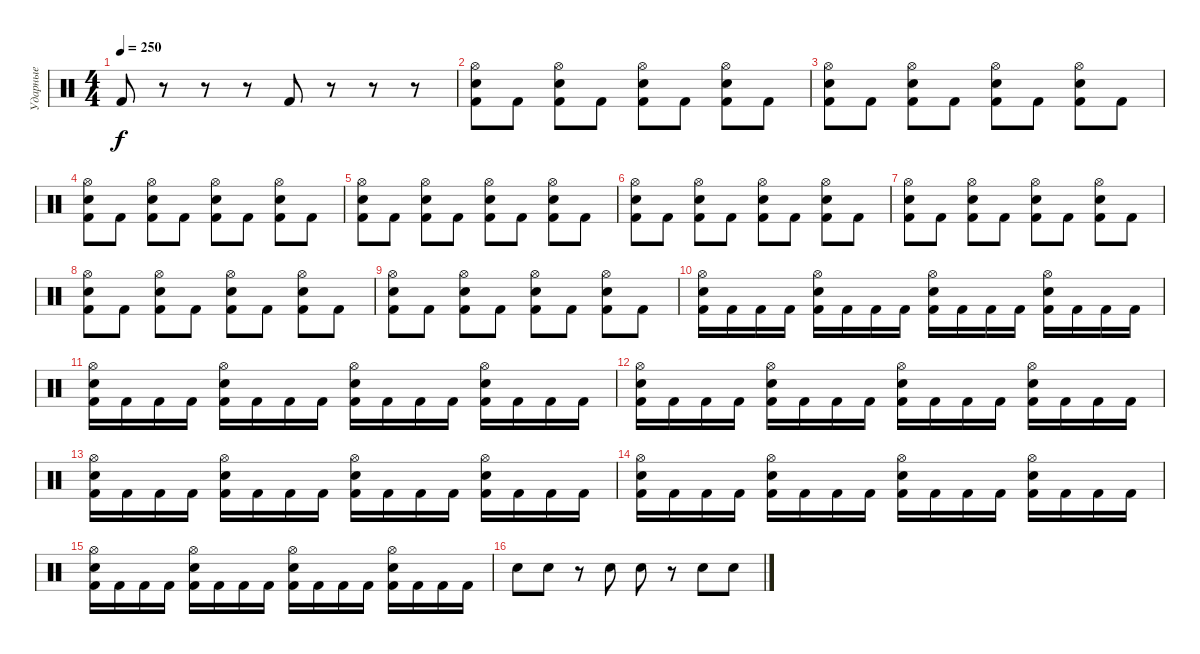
\track ("Ударные" "Ударные") {instrument percussion}
\staff {score}
\articulation defaults
\ts (4 4)
\tempo 250
\clef neutral
\ks c "Kick (hit) 2".8{dy f}
r.8 r.8 r.8 "Kick (hit) 2".8 r.8 r.8 r.8 |
("Kick (hit) 2" "Snare (hit) 2" "Hi-Hat (open)").8 "Kick (hit) 2".8 ("Kick (hit) 2" "Snare (hit) 2" "Hi-Hat (open)").8 "Kick (hit) 2".8 ("Kick (hit) 2" "Snare (hit) 2" "Hi-Hat (open)").8 "Kick (hit) 2".8 ("Kick (hit) 2" "Snare (hit) 2" "Hi-Hat (open)").8 "Kick (hit) 2".8 |
("Kick (hit) 2" "Snare (hit) 2" "Hi-Hat (open)").8 "Kick (hit) 2".8 ("Kick (hit) 2" "Snare (hit) 2" "Hi-Hat (open)").8 "Kick (hit) 2".8 ("Kick (hit) 2" "Snare (hit) 2" "Hi-Hat (open)").8 "Kick (hit) 2".8 ("Kick (hit) 2" "Snare (hit) 2" "Hi-Hat (open)").8 "Kick (hit) 2".8 |
("Kick (hit) 2" "Snare (hit) 2" "Hi-Hat (open)").8 "Kick (hit) 2".8 ("Kick (hit) 2" "Snare (hit) 2" "Hi-Hat (open)").8 "Kick (hit) 2".8 ("Kick (hit) 2" "Snare (hit) 2" "Hi-Hat (open)").8 "Kick (hit) 2".8 ("Kick (hit) 2" "Snare (hit) 2" "Hi-Hat (open)").8 "Kick (hit) 2".8 |
("Kick (hit) 2" "Snare (hit) 2" "Hi-Hat (open)").8 "Kick (hit) 2".8 ("Kick (hit) 2" "Snare (hit) 2" "Hi-Hat (open)").8 "Kick (hit) 2".8 ("Kick (hit) 2" "Snare (hit) 2" "Hi-Hat (open)").8 "Kick (hit) 2".8 ("Kick (hit) 2" "Snare (hit) 2" "Hi-Hat (open)").8 "Kick (hit) 2".8 |
("Kick (hit) 2" "Snare (hit) 2" "Hi-Hat (open)").8 "Kick (hit) 2".8 ("Kick (hit) 2" "Snare (hit) 2" "Hi-Hat (open)").8 "Kick (hit) 2".8 ("Kick (hit) 2" "Snare (hit) 2" "Hi-Hat (open)").8 "Kick (hit) 2".8 ("Kick (hit) 2" "Snare (hit) 2" "Hi-Hat (open)").8 "Kick (hit) 2".8 |
("Kick (hit) 2" "Snare (hit) 2" "Hi-Hat (open)").8 "Kick (hit) 2".8 ("Kick (hit) 2" "Snare (hit) 2" "Hi-Hat (open)").8 "Kick (hit) 2".8 ("Kick (hit) 2" "Snare (hit) 2" "Hi-Hat (open)").8 "Kick (hit) 2".8 ("Kick (hit) 2" "Snare (hit) 2" "Hi-Hat (open)").8 "Kick (hit) 2".8 |
("Kick (hit) 2" "Snare (hit) 2" "Hi-Hat (open)").8 "Kick (hit) 2".8 ("Kick (hit) 2" "Snare (hit) 2" "Hi-Hat (open)").8 "Kick (hit) 2".8 ("Kick (hit) 2" "Snare (hit) 2" "Hi-Hat (open)").8 "Kick (hit) 2".8 ("Kick (hit) 2" "Snare (hit) 2" "Hi-Hat (open)").8 "Kick (hit) 2".8 |
("Kick (hit) 2" "Snare (hit) 2" "Hi-Hat (open)").8 "Kick (hit) 2".8 ("Kick (hit) 2" "Snare (hit) 2" "Hi-Hat (open)").8 "Kick (hit) 2".8 ("Kick (hit) 2" "Snare (hit) 2" "Hi-Hat (open)").8 "Kick (hit) 2".8 ("Kick (hit) 2" "Snare (hit) 2" "Hi-Hat (open)").8 "Kick (hit) 2".8 |
("Kick (hit) 2" "Snare (hit) 2" "Hi-Hat (open)").16 "Kick (hit) 2".16 "Kick (hit) 2".16 "Kick (hit) 2".16 ("Kick (hit) 2" "Snare (hit) 2" "Hi-Hat (open)").16 "Kick (hit) 2".16 "Kick (hit) 2".16 "Kick (hit) 2".16 ("Kick (hit) 2" "Snare (hit) 2" "Hi-Hat (open)").16 "Kick (hit) 2".16 "Kick (hit) 2".16 "Kick (hit) 2".16 ("Kick (hit) 2" "Snare (hit) 2" "Hi-Hat (open)").16 "Kick (hit) 2".16 "Kick (hit) 2".16 "Kick (hit) 2".16 |
("Kick (hit) 2" "Snare (hit) 2" "Hi-Hat (open)").16 "Kick (hit) 2".16 "Kick (hit) 2".16 "Kick (hit) 2".16 ("Kick (hit) 2" "Snare (hit) 2" "Hi-Hat (open)").16 "Kick (hit) 2".16 "Kick (hit) 2".16 "Kick (hit) 2".16 ("Kick (hit) 2" "Snare (hit) 2" "Hi-Hat (open)").16 "Kick (hit) 2".16 "Kick (hit) 2".16 "Kick (hit) 2".16 ("Kick (hit) 2" "Snare (hit) 2" "Hi-Hat (open)").16 "Kick (hit) 2".16 "Kick (hit) 2".16 "Kick (hit) 2".16 |
("Kick (hit) 2" "Snare (hit) 2" "Hi-Hat (open)").16 "Kick (hit) 2".16 "Kick (hit) 2".16 "Kick (hit) 2".16 ("Kick (hit) 2" "Snare (hit) 2" "Hi-Hat (open)").16 "Kick (hit) 2".16 "Kick (hit) 2".16 "Kick (hit) 2".16 ("Kick (hit) 2" "Snare (hit) 2" "Hi-Hat (open)").16 "Kick (hit) 2".16 "Kick (hit) 2".16 "Kick (hit) 2".16 ("Kick (hit) 2" "Snare (hit) 2" "Hi-Hat (open)").16 "Kick (hit) 2".16 "Kick (hit) 2".16 "Kick (hit) 2".16 |
("Kick (hit) 2" "Snare (hit) 2" "Hi-Hat (open)").16 "Kick (hit) 2".16 "Kick (hit) 2".16 "Kick (hit) 2".16 ("Kick (hit) 2" "Snare (hit) 2" "Hi-Hat (open)").16 "Kick (hit) 2".16 "Kick (hit) 2".16 "Kick (hit) 2".16 ("Kick (hit) 2" "Snare (hit) 2" "Hi-Hat (open)").16 "Kick (hit) 2".16 "Kick (hit) 2".16 "Kick (hit) 2".16 ("Kick (hit) 2" "Snare (hit) 2" "Hi-Hat (open)").16 "Kick (hit) 2".16 "Kick (hit) 2".16 "Kick (hit) 2".16 |
("Kick (hit) 2" "Snare (hit) 2" "Hi-Hat (open)").16 "Kick (hit) 2".16 "Kick (hit) 2".16 "Kick (hit) 2".16 ("Kick (hit) 2" "Snare (hit) 2" "Hi-Hat (open)").16 "Kick (hit) 2".16 "Kick (hit) 2".16 "Kick (hit) 2".16 ("Kick (hit) 2" "Snare (hit) 2" "Hi-Hat (open)").16 "Kick (hit) 2".16 "Kick (hit) 2".16 "Kick (hit) 2".16 ("Kick (hit) 2" "Snare (hit) 2" "Hi-Hat (open)").16 "Kick (hit) 2".16 "Kick (hit) 2".16 "Kick (hit) 2".16 |
("Kick (hit) 2" "Snare (hit) 2" "Hi-Hat (open)").16 "Kick (hit) 2".16 "Kick (hit) 2".16 "Kick (hit) 2".16 ("Kick (hit) 2" "Snare (hit) 2" "Hi-Hat (open)").16 "Kick (hit) 2".16 "Kick (hit) 2".16 "Kick (hit) 2".16 ("Kick (hit) 2" "Snare (hit) 2" "Hi-Hat (open)").16 "Kick (hit) 2".16 "Kick (hit) 2".16 "Kick (hit) 2".16 ("Kick (hit) 2" "Snare (hit) 2" "Hi-Hat (open)").16 "Kick (hit) 2".16 "Kick (hit) 2".16 "Kick (hit) 2".16 |
"Snare (hit) 2".8 "Snare (hit) 2".8 r.8 "Snare (hit) 2".8 "Snare (hit) 2".8 r.8 "Snare (hit) 2".8 "Snare (hit) 2".8
